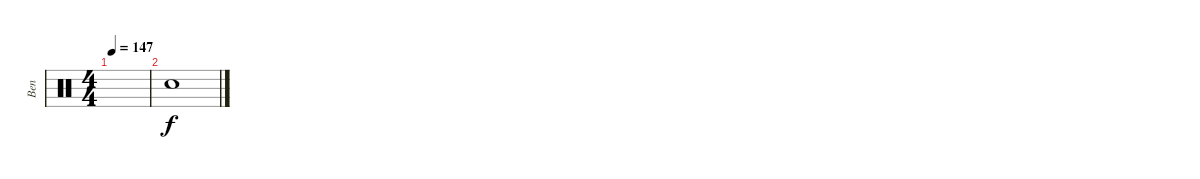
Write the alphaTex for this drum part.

\track ("Ben" "Ben") {instrument percussion}
\staff {score}
\articulation defaults
\ts (4 4)
\tempo 147
\clef neutral
\ks c
|
"Snare (hit)"{t}.1
